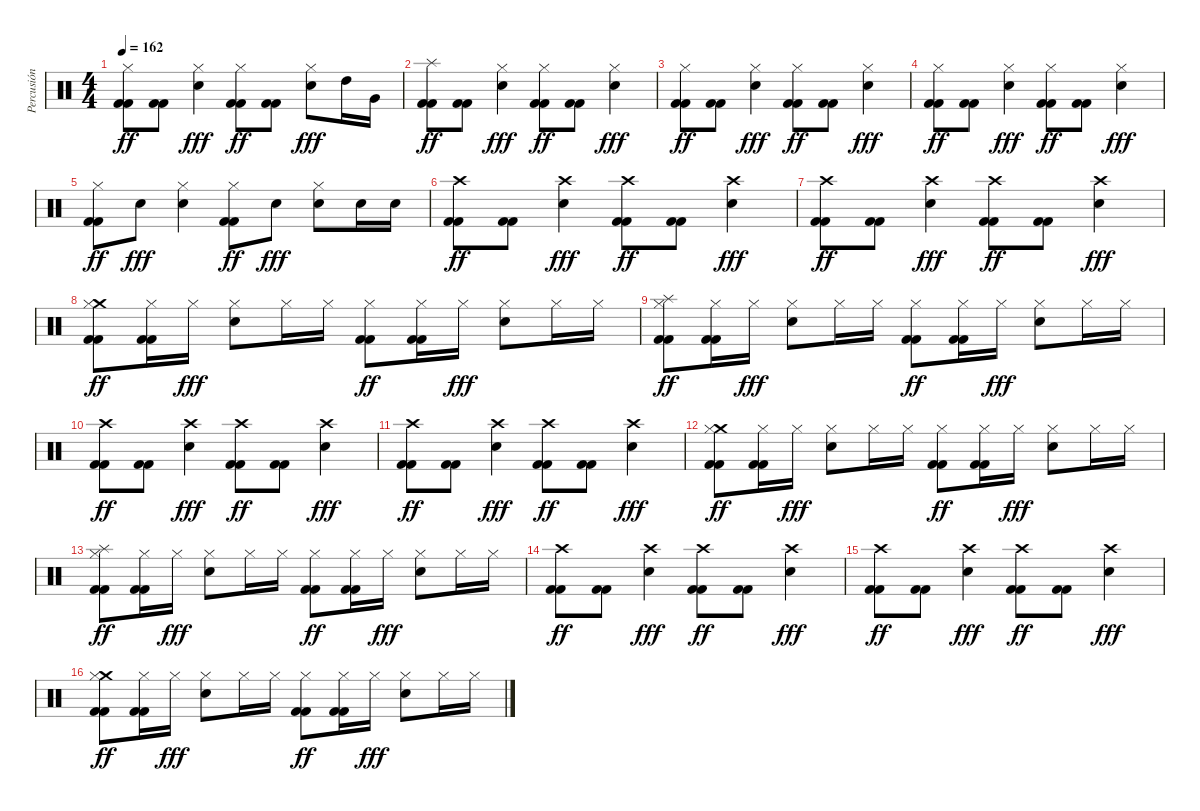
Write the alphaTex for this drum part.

\track ("Percusión" "Percusión") {instrument percussion}
\staff {score}
\articulation defaults
\ts (4 4)
\tempo 162
\clef neutral
\ks c
("Hi-Hat (closed)" "Kick (hit) 2" "Kick (hit) 2").8{dy ff} ("Kick (hit) 2" "Kick (hit) 2").8 ("Hi-Hat (closed)" "Snare (hit) 2").4{dy fff} ("Hi-Hat (closed)" "Kick (hit) 2" "Kick (hit) 2").8{dy ff} ("Kick (hit) 2" "Kick (hit) 2").8 ("Hi-Hat (closed)" "Snare (hit) 2").8{dy fff} "High Tom (hit)".16 "Very Low Tom (hit)".16 |
("Splash (hit)" "Kick (hit) 2" "Kick (hit) 2").8{dy ff} ("Kick (hit) 2" "Kick (hit) 2").8 ("Hi-Hat (closed)" "Snare (hit) 2").4{dy fff} ("Hi-Hat (closed)" "Kick (hit) 2" "Kick (hit) 2").8{dy ff} ("Kick (hit) 2" "Kick (hit) 2").8 ("Hi-Hat (closed)" "Snare (hit) 2").4{dy fff} |
("Hi-Hat (closed)" "Kick (hit) 2" "Kick (hit) 2").8{dy ff} ("Kick (hit) 2" "Kick (hit) 2").8 ("Hi-Hat (closed)" "Snare (hit) 2").4{dy fff} ("Hi-Hat (closed)" "Kick (hit) 2" "Kick (hit) 2").8{dy ff} ("Kick (hit) 2" "Kick (hit) 2").8 ("Hi-Hat (closed)" "Snare (hit) 2").4{dy fff} |
("Hi-Hat (closed)" "Kick (hit) 2" "Kick (hit) 2").8{dy ff} ("Kick (hit) 2" "Kick (hit) 2").8 ("Hi-Hat (closed)" "Snare (hit) 2").4{dy fff} ("Hi-Hat (closed)" "Kick (hit) 2" "Kick (hit) 2").8{dy ff} ("Kick (hit) 2" "Kick (hit) 2").8 ("Hi-Hat (closed)" "Snare (hit) 2").4{dy fff} |
("Hi-Hat (closed)" "Kick (hit) 2" "Kick (hit) 2").8{dy ff} "Snare (hit) 2".8{dy fff} ("Hi-Hat (closed)" "Snare (hit) 2").4 ("Hi-Hat (closed)" "Kick (hit) 2" "Kick (hit) 2").8{dy ff} "Snare (hit) 2".8{dy fff} ("Hi-Hat (closed)" "Snare (hit) 2").8 "Snare (hit) 2".16 "Snare (hit) 2".16 |
("Crash high (hit)" "Kick (hit) 2" "Kick (hit) 2").8{dy ff} ("Kick (hit) 2" "Kick (hit) 2").8 ("Crash high (hit)" "Snare (hit) 2").4{dy fff} ("Crash high (hit)" "Kick (hit) 2" "Kick (hit) 2").8{dy ff} ("Kick (hit) 2" "Kick (hit) 2").8 ("Crash high (hit)" "Snare (hit) 2").4{dy fff} |
("Crash high (hit)" "Kick (hit) 2" "Kick (hit) 2").8{dy ff} ("Kick (hit) 2" "Kick (hit) 2").8 ("Crash high (hit)" "Snare (hit) 2").4{dy fff} ("Crash high (hit)" "Kick (hit) 2" "Kick (hit) 2").8{dy ff} ("Kick (hit) 2" "Kick (hit) 2").8 ("Crash high (hit)" "Snare (hit) 2").4{dy fff} |
("Crash medium (hit)" "Hi-Hat (closed)" "Kick (hit) 2" "Kick (hit) 2").8{dy ff} ("Hi-Hat (closed)" "Kick (hit) 2" "Kick (hit) 2").16 "Hi-Hat (closed)".16{dy fff} ("Hi-Hat (closed)" "Snare (hit) 2").8 "Hi-Hat (closed)".16 "Hi-Hat (closed)".16 ("Hi-Hat (closed)" "Kick (hit) 2" "Kick (hit) 2").8{dy ff} ("Hi-Hat (closed)" "Kick (hit) 2" "Kick (hit) 2").16 "Hi-Hat (closed)".16{dy fff} ("Hi-Hat (closed)" "Snare (hit) 2").8 "Hi-Hat (closed)".16 "Hi-Hat (closed)".16 |
("Splash (hit)" "Hi-Hat (closed)" "Kick (hit) 2" "Kick (hit) 2").8{dy ff} ("Hi-Hat (closed)" "Kick (hit) 2" "Kick (hit) 2").16 "Hi-Hat (closed)".16{dy fff} ("Hi-Hat (closed)" "Snare (hit) 2").8 "Hi-Hat (closed)".16 "Hi-Hat (closed)".16 ("Hi-Hat (closed)" "Kick (hit) 2" "Kick (hit) 2").8{dy ff} ("Hi-Hat (closed)" "Kick (hit) 2" "Kick (hit) 2").16 "Hi-Hat (closed)".16{dy fff} ("Hi-Hat (closed)" "Snare (hit) 2").8 "Hi-Hat (closed)".16 "Hi-Hat (closed)".16 |
("Crash high (hit)" "Kick (hit) 2" "Kick (hit) 2").8{dy ff} ("Kick (hit) 2" "Kick (hit) 2").8 ("Crash high (hit)" "Snare (hit) 2").4{dy fff} ("Crash high (hit)" "Kick (hit) 2" "Kick (hit) 2").8{dy ff} ("Kick (hit) 2" "Kick (hit) 2").8 ("Crash high (hit)" "Snare (hit) 2").4{dy fff} |
("Crash high (hit)" "Kick (hit) 2" "Kick (hit) 2").8{dy ff} ("Kick (hit) 2" "Kick (hit) 2").8 ("Crash high (hit)" "Snare (hit) 2").4{dy fff} ("Crash high (hit)" "Kick (hit) 2" "Kick (hit) 2").8{dy ff} ("Kick (hit) 2" "Kick (hit) 2").8 ("Crash high (hit)" "Snare (hit) 2").4{dy fff} |
("Crash medium (hit)" "Hi-Hat (closed)" "Kick (hit) 2" "Kick (hit) 2").8{dy ff} ("Hi-Hat (closed)" "Kick (hit) 2" "Kick (hit) 2").16 "Hi-Hat (closed)".16{dy fff} ("Hi-Hat (closed)" "Snare (hit) 2").8 "Hi-Hat (closed)".16 "Hi-Hat (closed)".16 ("Hi-Hat (closed)" "Kick (hit) 2" "Kick (hit) 2").8{dy ff} ("Hi-Hat (closed)" "Kick (hit) 2" "Kick (hit) 2").16 "Hi-Hat (closed)".16{dy fff} ("Hi-Hat (closed)" "Snare (hit) 2").8 "Hi-Hat (closed)".16 "Hi-Hat (closed)".16 |
("Splash (hit)" "Hi-Hat (closed)" "Kick (hit) 2" "Kick (hit) 2").8{dy ff} ("Hi-Hat (closed)" "Kick (hit) 2" "Kick (hit) 2").16 "Hi-Hat (closed)".16{dy fff} ("Hi-Hat (closed)" "Snare (hit) 2").8 "Hi-Hat (closed)".16 "Hi-Hat (closed)".16 ("Hi-Hat (closed)" "Kick (hit) 2" "Kick (hit) 2").8{dy ff} ("Hi-Hat (closed)" "Kick (hit) 2" "Kick (hit) 2").16 "Hi-Hat (closed)".16{dy fff} ("Hi-Hat (closed)" "Snare (hit) 2").8 "Hi-Hat (closed)".16 "Hi-Hat (closed)".16 |
("Crash high (hit)" "Kick (hit) 2" "Kick (hit) 2").8{dy ff} ("Kick (hit) 2" "Kick (hit) 2").8 ("Crash high (hit)" "Snare (hit) 2").4{dy fff} ("Crash high (hit)" "Kick (hit) 2" "Kick (hit) 2").8{dy ff} ("Kick (hit) 2" "Kick (hit) 2").8 ("Crash high (hit)" "Snare (hit) 2").4{dy fff} |
("Crash high (hit)" "Kick (hit) 2" "Kick (hit) 2").8{dy ff} ("Kick (hit) 2" "Kick (hit) 2").8 ("Crash high (hit)" "Snare (hit) 2").4{dy fff} ("Crash high (hit)" "Kick (hit) 2" "Kick (hit) 2").8{dy ff} ("Kick (hit) 2" "Kick (hit) 2").8 ("Crash high (hit)" "Snare (hit) 2").4{dy fff} |
("Crash medium (hit)" "Hi-Hat (closed)" "Kick (hit) 2" "Kick (hit) 2").8{dy ff} ("Hi-Hat (closed)" "Kick (hit) 2" "Kick (hit) 2").16 "Hi-Hat (closed)".16{dy fff} ("Hi-Hat (closed)" "Snare (hit) 2").8 "Hi-Hat (closed)".16 "Hi-Hat (closed)".16 ("Hi-Hat (closed)" "Kick (hit) 2" "Kick (hit) 2").8{dy ff} ("Hi-Hat (closed)" "Kick (hit) 2" "Kick (hit) 2").16 "Hi-Hat (closed)".16{dy fff} ("Hi-Hat (closed)" "Snare (hit) 2").8 "Hi-Hat (closed)".16 "Hi-Hat (closed)".16
